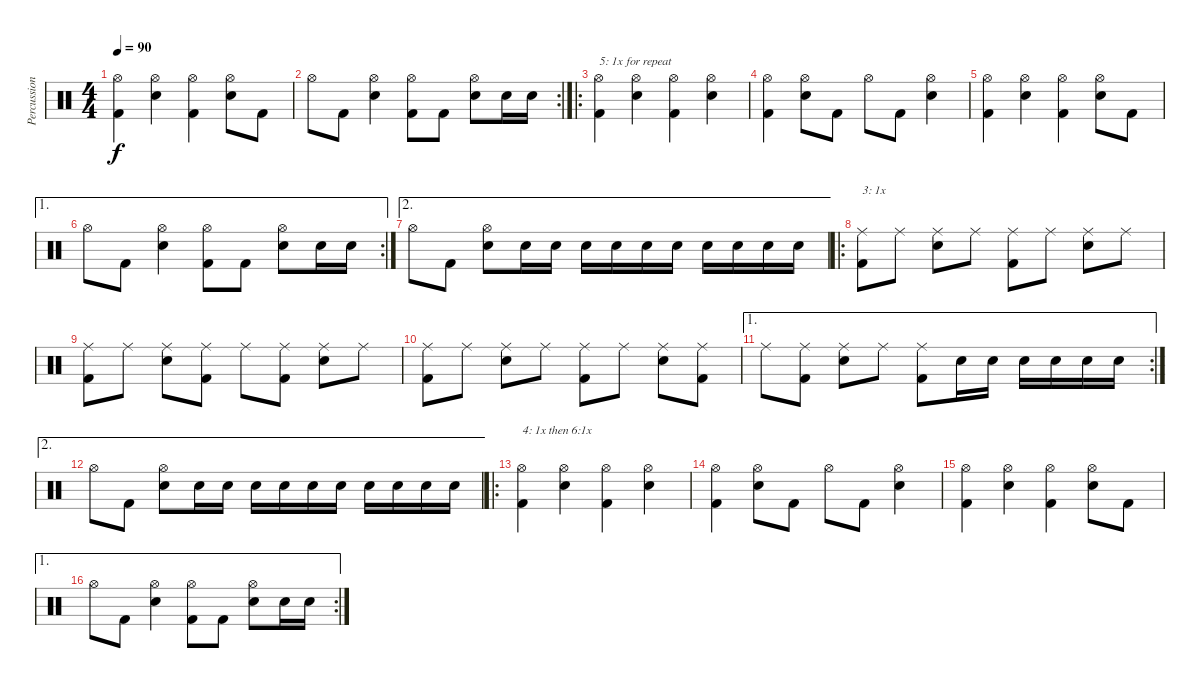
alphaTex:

\track ("Percussion" "Percussion") {instrument percussion}
\staff {score}
\articulation defaults
\ts (4 4)
\tempo 90
\clef neutral
\ks c
("Kick (hit) 2" "Hi-Hat (open)").4{dy f} ("Electric Snare (hit)" "Hi-Hat (open)").4 ("Kick (hit) 2" "Hi-Hat (open)").4 ("Electric Snare (hit)" "Hi-Hat (open)").8 "Kick (hit) 2".8 |
\rc 2 "Hi-Hat (open)".8 "Kick (hit) 2".8
("Electric Snare (hit)" "Hi-Hat (open)").4 ("Kick (hit) 2" "Hi-Hat (open)").8 "Kick (hit) 2".8 ("Electric Snare (hit)" "Hi-Hat (open)").8 "Electric Snare (hit)".16 "Electric Snare (hit)".16 |
\ro
("Kick (hit) 2" "Hi-Hat (open)").4{txt "5: 1x for repeat"} ("Electric Snare (hit)" "Hi-Hat (open)").4 ("Kick (hit) 2" "Hi-Hat (open)").4 ("Electric Snare (hit)" "Hi-Hat (open)").4 |
("Kick (hit) 2" "Hi-Hat (open)").4 ("Electric Snare (hit)" "Hi-Hat (open)").8 "Kick (hit) 2".8 "Hi-Hat (open)".8 "Kick (hit) 2".8 ("Electric Snare (hit)" "Hi-Hat (open)").4 |
("Kick (hit) 2" "Hi-Hat (open)").4 ("Electric Snare (hit)" "Hi-Hat (open)").4 ("Kick (hit) 2" "Hi-Hat (open)").4 ("Electric Snare (hit)" "Hi-Hat (open)").8 "Kick (hit) 2".8 |
\ae 1
\rc 2 "Hi-Hat (open)".8 "Kick (hit) 2".8
("Electric Snare (hit)" "Hi-Hat (open)").4 ("Kick (hit) 2" "Hi-Hat (open)").8 "Kick (hit) 2".8 ("Electric Snare (hit)" "Hi-Hat (open)").8 "Electric Snare (hit)".16 "Electric Snare (hit)".16 |
\ae 2 "Hi-Hat (open)".8 "Kick (hit) 2".8
("Electric Snare (hit)" "Hi-Hat (open)").8 "Electric Snare (hit)".16 "Electric Snare (hit)".16 "Electric Snare (hit)".16 "Electric Snare (hit)".16 "Electric Snare (hit)".16 "Electric Snare (hit)".16 "Electric Snare (hit)".16 "Electric Snare (hit)".16 "Electric Snare (hit)".16 "Electric Snare (hit)".16 |
\ro
("Kick (hit) 2" "Ride (middle)").8{txt "3: 1x"} "Ride (middle)".8 ("Electric Snare (hit)" "Ride (middle)").8 "Ride (middle)".8 ("Kick (hit) 2" "Ride (middle)").8 "Ride (middle)".8 ("Electric Snare (hit)" "Ride (middle)").8 "Ride (middle)".8 |
("Kick (hit) 2" "Ride (middle)").8 "Ride (middle)".8 ("Electric Snare (hit)" "Ride (middle)").8 ("Kick (hit) 2" "Ride (middle)").8 "Ride (middle)".8 ("Kick (hit) 2" "Ride (middle)").8 ("Electric Snare (hit)" "Ride (middle)").8 "Ride (middle)".8 |
("Kick (hit) 2" "Ride (middle)").8 "Ride (middle)".8 ("Electric Snare (hit)" "Ride (middle)").8 "Ride (middle)".8 ("Kick (hit) 2" "Ride (middle)").8 "Ride (middle)".8 ("Electric Snare (hit)" "Ride (middle)").8 ("Kick (hit) 2" "Ride (middle)").8 |
\ae 1
\rc 2 "Ride (middle)".8
("Kick (hit) 2" "Ride (middle)").8 ("Electric Snare (hit)" "Ride (middle)").8 "Ride (middle)".8 ("Kick (hit) 2" "Ride (middle)").8 "Electric Snare (hit)".16 "Electric Snare (hit)".16 "Electric Snare (hit)".16 "Electric Snare (hit)".16 "Electric Snare (hit)".16 "Electric Snare (hit)".16 |
\ae 2 "Hi-Hat (open)".8 "Kick (hit) 2".8
("Electric Snare (hit)" "Hi-Hat (open)").8 "Electric Snare (hit)".16 "Electric Snare (hit)".16 "Electric Snare (hit)".16 "Electric Snare (hit)".16 "Electric Snare (hit)".16 "Electric Snare (hit)".16 "Electric Snare (hit)".16 "Electric Snare (hit)".16 "Electric Snare (hit)".16 "Electric Snare (hit)".16 |
\ro
("Kick (hit) 2" "Hi-Hat (open)").4{txt "4: 1x then 6:1x"} ("Electric Snare (hit)" "Hi-Hat (open)").4 ("Kick (hit) 2" "Hi-Hat (open)").4 ("Electric Snare (hit)" "Hi-Hat (open)").4 |
("Kick (hit) 2" "Hi-Hat (open)").4 ("Electric Snare (hit)" "Hi-Hat (open)").8 "Kick (hit) 2".8 "Hi-Hat (open)".8 "Kick (hit) 2".8 ("Electric Snare (hit)" "Hi-Hat (open)").4 |
("Kick (hit) 2" "Hi-Hat (open)").4 ("Electric Snare (hit)" "Hi-Hat (open)").4 ("Kick (hit) 2" "Hi-Hat (open)").4 ("Electric Snare (hit)" "Hi-Hat (open)").8 "Kick (hit) 2".8 |
\ae 1
\rc 2 "Hi-Hat (open)".8 "Kick (hit) 2".8
("Electric Snare (hit)" "Hi-Hat (open)").4 ("Kick (hit) 2" "Hi-Hat (open)").8 "Kick (hit) 2".8 ("Electric Snare (hit)" "Hi-Hat (open)").8 "Electric Snare (hit)".16 "Electric Snare (hit)".16
